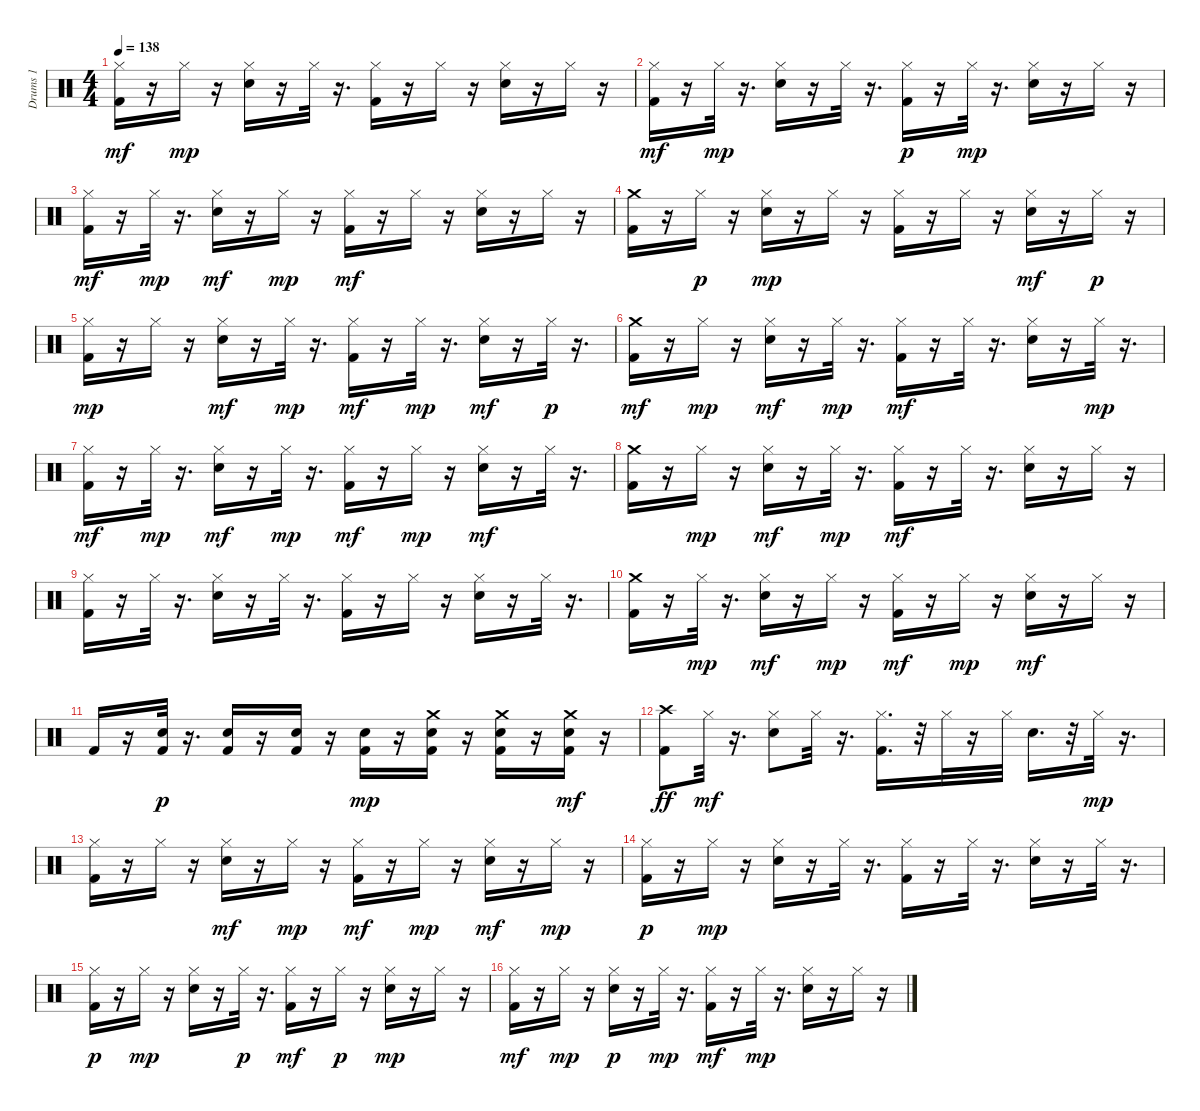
\track ("Drums 1" "Drums 1") {instrument percussion}
\staff {score}
\articulation defaults
\ts (4 4)
\tempo 138
\clef neutral
\ks c
("Kick (hit) 2" "Hi-Hat (closed)").16{dy mf} r.16 "Hi-Hat (closed)".16{dy mp} r.16 ("Hi-Hat (closed)" "Snare (hit) 2").16 r.16 "Hi-Hat (closed)".32 r.16{d} ("Hi-Hat (closed)" "Kick (hit) 2").16 r.16 "Hi-Hat (closed)".16 r.16 ("Hi-Hat (closed)" "Snare (hit) 2").16 r.16 "Hi-Hat (closed)".16 r.16 |
("Kick (hit) 2" "Hi-Hat (closed)").16{dy mf} r.16 "Hi-Hat (closed)".32{dy mp} r.16{d} ("Hi-Hat (closed)" "Snare (hit) 2").16 r.16 "Hi-Hat (closed)".32 r.16{d} ("Hi-Hat (closed)" "Kick (hit) 2").16{dy p} r.16 "Hi-Hat (closed)".32{dy mp} r.16{d} ("Hi-Hat (closed)" "Snare (hit) 2").16 r.16 "Hi-Hat (closed)".16 r.16 |
("Kick (hit) 2" "Hi-Hat (closed)").16{dy mf} r.16 "Hi-Hat (closed)".32{dy mp} r.16{d} ("Snare (hit) 2" "Hi-Hat (closed)").16{dy mf} r.16 "Hi-Hat (closed)".16{dy mp} r.16 ("Kick (hit) 2" "Hi-Hat (closed)").16{dy mf} r.16 "Hi-Hat (closed)".16 r.16 ("Snare (hit) 2" "Hi-Hat (closed)").16 r.16 "Hi-Hat (closed)".16 r.16 |
("Kick (hit) 2" "Crash medium (hit)").16 r.16 "Hi-Hat (closed)".16{dy p} r.16 ("Hi-Hat (closed)" "Snare (hit) 2").16{dy mp} r.16 "Hi-Hat (closed)".16 r.16 ("Kick (hit) 2" "Hi-Hat (closed)").16 r.16 "Hi-Hat (closed)".16 r.16 ("Hi-Hat (closed)" "Snare (hit) 2").16{dy mf} r.16 "Hi-Hat (closed)".16{dy p} r.16 |
("Kick (hit) 2" "Hi-Hat (closed)").16{dy mp} r.16 "Hi-Hat (closed)".16 r.16 ("Snare (hit) 2" "Hi-Hat (closed)").16{dy mf} r.16 "Hi-Hat (closed)".32{dy mp} r.16{d} ("Kick (hit) 2" "Hi-Hat (closed)").16{dy mf} r.16 "Hi-Hat (closed)".32{dy mp} r.16{d} ("Snare (hit) 2" "Hi-Hat (closed)").16{dy mf} r.16 "Hi-Hat (closed)".32{dy p} r.16{d} |
("Kick (hit) 2" "Crash medium (hit)").16{dy mf} r.16 "Hi-Hat (closed)".16{dy mp} r.16 ("Hi-Hat (closed)" "Snare (hit) 2").16{dy mf} r.16 "Hi-Hat (closed)".32{dy mp} r.16{d} ("Kick (hit) 2" "Hi-Hat (closed)").16{dy mf} r.16 "Hi-Hat (closed)".32 r.16{d} ("Snare (hit) 2" "Hi-Hat (closed)").16 r.16 "Hi-Hat (closed)".32{dy mp} r.16{d} |
("Kick (hit) 2" "Hi-Hat (closed)").16{dy mf} r.16 "Hi-Hat (closed)".32{dy mp} r.16{d} ("Snare (hit) 2" "Hi-Hat (closed)").16{dy mf} r.16 "Hi-Hat (closed)".32{dy mp} r.16{d} ("Kick (hit) 2" "Hi-Hat (closed)").16{dy mf} r.16 "Hi-Hat (closed)".16{dy mp} r.16 ("Snare (hit) 2" "Hi-Hat (closed)").16{dy mf} r.16 "Hi-Hat (closed)".32 r.16{d} |
("Kick (hit) 2" "Crash medium (hit)").16 r.16 "Hi-Hat (closed)".16{dy mp} r.16 ("Snare (hit) 2" "Hi-Hat (closed)").16{dy mf} r.16 "Hi-Hat (closed)".32{dy mp} r.16{d} ("Kick (hit) 2" "Hi-Hat (closed)").16{dy mf} r.16 "Hi-Hat (closed)".32 r.16{d} ("Snare (hit) 2" "Hi-Hat (closed)").16 r.16 "Hi-Hat (closed)".16 r.16 |
("Kick (hit) 2" "Hi-Hat (closed)").16 r.16 "Hi-Hat (closed)".32 r.16{d} ("Snare (hit) 2" "Hi-Hat (closed)").16 r.16 "Hi-Hat (closed)".32 r.16{d} ("Kick (hit) 2" "Hi-Hat (closed)").16 r.16 "Hi-Hat (closed)".16 r.16 ("Snare (hit) 2" "Hi-Hat (closed)").16 r.16 "Hi-Hat (closed)".32 r.16{d} |
("Kick (hit) 2" "Crash medium (hit)").16 r.16 "Hi-Hat (closed)".32{dy mp} r.16{d} ("Snare (hit) 2" "Hi-Hat (closed)").16{dy mf} r.16 "Hi-Hat (closed)".16{dy mp} r.16 ("Kick (hit) 2" "Hi-Hat (closed)").16{dy mf} r.16 "Hi-Hat (closed)".16{dy mp} r.16 ("Snare (hit) 2" "Hi-Hat (closed)").16{dy mf} r.16 "Hi-Hat (closed)".16 r.16 |
"Kick (hit) 2".16 r.16 ("Kick (hit) 2" "Snare (hit) 2").32{dy p} r.16{d} ("Kick (hit) 2" "Snare (hit) 2").16 r.16 ("Kick (hit) 2" "Snare (hit) 2").16 r.16 ("Kick (hit) 2" "Snare (hit) 2").16{dy mp} r.16 ("Kick (hit) 2" "Crash medium (hit)" "Snare (hit) 2").16 r.16 ("Kick (hit) 2" "Crash medium (hit)" "Snare (hit) 2").16 r.16 ("Crash medium (hit)" "Kick (hit) 2" "Snare (hit) 2").16{dy mf} r.16 |
("Kick (hit) 2" "Crash high (hit)").8{dy ff} "Hi-Hat (closed)".32{dy mf} r.16{d} ("Hi-Hat (closed)" "Snare (hit) 2").8 "Hi-Hat (closed)".32 r.16{d} ("Kick (hit) 2" "Hi-Hat (closed)").16{d} r.32 "Hi-Hat (closed)".32 r.16 "Hi-Hat (closed)".32 "Snare (hit) 2".16{d} r.32 "Hi-Hat (closed)".32{dy mp} r.16{d} |
("Hi-Hat (closed)" "Kick (hit) 2").16 r.16 "Hi-Hat (closed)".16 r.16 ("Hi-Hat (closed)" "Snare (hit) 2").16{dy mf} r.16 "Hi-Hat (closed)".16{dy mp} r.16 ("Kick (hit) 2" "Hi-Hat (closed)").16{dy mf} r.16 "Hi-Hat (closed)".16{dy mp} r.16 ("Hi-Hat (closed)" "Snare (hit) 2").16{dy mf} r.16 "Hi-Hat (closed)".16{dy mp} r.16 |
("Hi-Hat (closed)" "Kick (hit) 2").16{dy p} r.16 "Hi-Hat (closed)".16{dy mp} r.16 ("Hi-Hat (closed)" "Snare (hit) 2").16 r.16 "Hi-Hat (closed)".32 r.16{d} ("Hi-Hat (closed)" "Kick (hit) 2").16 r.16 "Hi-Hat (closed)".32 r.16{d} ("Hi-Hat (closed)" "Snare (hit) 2").16 r.16 "Hi-Hat (closed)".32 r.16{d} |
("Hi-Hat (closed)" "Kick (hit) 2").16{dy p} r.16 "Hi-Hat (closed)".16{dy mp} r.16 ("Hi-Hat (closed)" "Snare (hit) 2").16 r.16 "Hi-Hat (closed)".32{dy p} r.16{d} ("Kick (hit) 2" "Hi-Hat (closed)").16{dy mf} r.16 "Hi-Hat (closed)".16{dy p} r.16 ("Hi-Hat (closed)" "Snare (hit) 2").16{dy mp} r.16 "Hi-Hat (closed)".16 r.16 |
("Kick (hit) 2" "Hi-Hat (closed)").16{dy mf} r.16 "Hi-Hat (closed)".16{dy mp} r.16 ("Hi-Hat (closed)" "Snare (hit) 2").16{dy p} r.16 "Hi-Hat (closed)".32{dy mp} r.16{d} ("Kick (hit) 2" "Hi-Hat (closed)").16{dy mf} r.16 "Hi-Hat (closed)".32{dy mp} r.16{d} ("Hi-Hat (closed)" "Snare (hit) 2").16 r.16 "Hi-Hat (closed)".16 r.16
